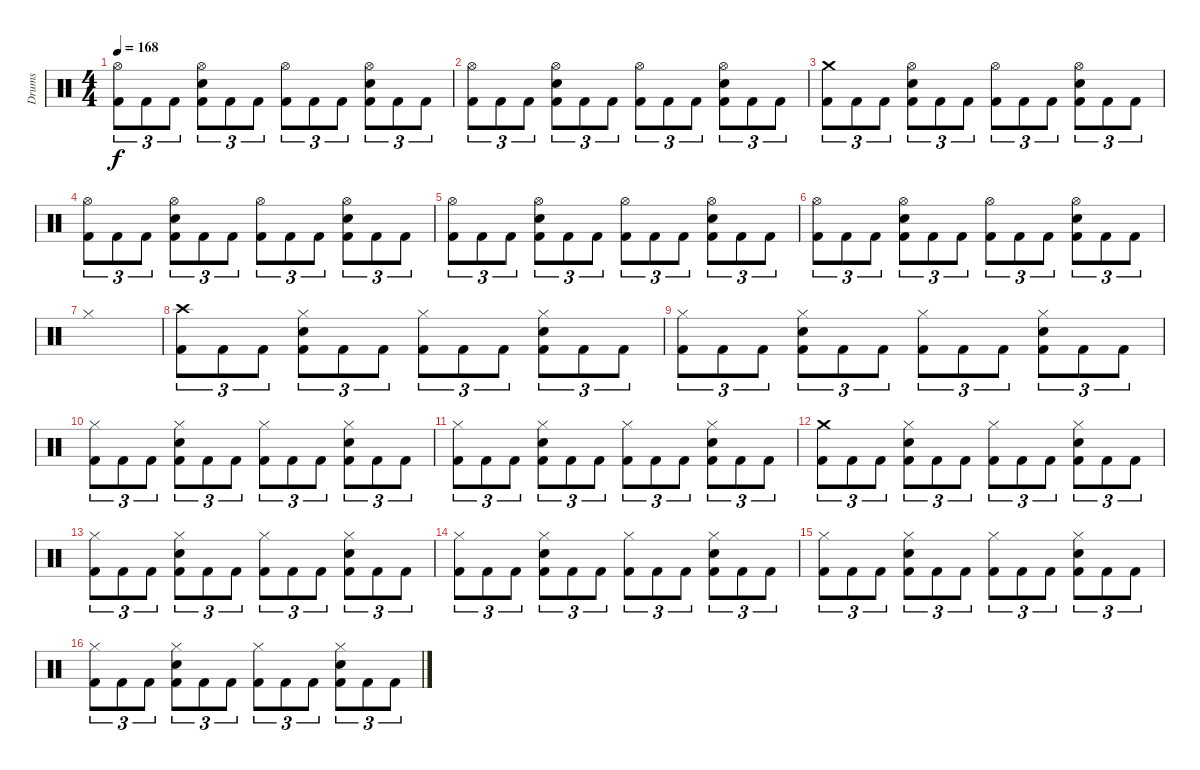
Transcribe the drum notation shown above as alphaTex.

\track ("Drums" "Drums") {instrument percussion}
\staff {score}
\articulation defaults
\ts (4 4)
\tempo 168
\clef neutral
\ks c
("Hi-Hat (open)" "Kick (hit) 2").8{tu (3 2) dy f} "Kick (hit) 2".8{tu (3 2)} "Kick (hit) 2".8{tu (3 2)} ("Hi-Hat (open)" "Electric Snare (hit)" "Kick (hit) 2").8{tu (3 2)} "Kick (hit) 2".8{tu (3 2)} "Kick (hit) 2".8{tu (3 2)} ("Hi-Hat (open)" "Kick (hit) 2").8{tu (3 2)} "Kick (hit) 2".8{tu (3 2)} "Kick (hit) 2".8{tu (3 2)} ("Hi-Hat (open)" "Electric Snare (hit)" "Kick (hit) 2").8{tu (3 2)} "Kick (hit) 2".8{tu (3 2)} "Kick (hit) 2".8{tu (3 2)} |
("Hi-Hat (open)" "Kick (hit) 2").8{tu (3 2)} "Kick (hit) 2".8{tu (3 2)} "Kick (hit) 2".8{tu (3 2)} ("Hi-Hat (open)" "Electric Snare (hit)" "Kick (hit) 2").8{tu (3 2)} "Kick (hit) 2".8{tu (3 2)} "Kick (hit) 2".8{tu (3 2)} ("Hi-Hat (open)" "Kick (hit) 2").8{tu (3 2)} "Kick (hit) 2".8{tu (3 2)} "Kick (hit) 2".8{tu (3 2)} ("Hi-Hat (open)" "Electric Snare (hit)" "Kick (hit) 2").8{tu (3 2)} "Kick (hit) 2".8{tu (3 2)} "Kick (hit) 2".8{tu (3 2)} |
("Crash medium (hit)" "Kick (hit) 2").8{tu (3 2)} "Kick (hit) 2".8{tu (3 2)} "Kick (hit) 2".8{tu (3 2)} ("Hi-Hat (open)" "Electric Snare (hit)" "Kick (hit) 2").8{tu (3 2)} "Kick (hit) 2".8{tu (3 2)} "Kick (hit) 2".8{tu (3 2)} ("Hi-Hat (open)" "Kick (hit) 2").8{tu (3 2)} "Kick (hit) 2".8{tu (3 2)} "Kick (hit) 2".8{tu (3 2)} ("Hi-Hat (open)" "Electric Snare (hit)" "Kick (hit) 2").8{tu (3 2)} "Kick (hit) 2".8{tu (3 2)} "Kick (hit) 2".8{tu (3 2)} |
("Hi-Hat (open)" "Kick (hit) 2").8{tu (3 2)} "Kick (hit) 2".8{tu (3 2)} "Kick (hit) 2".8{tu (3 2)} ("Hi-Hat (open)" "Electric Snare (hit)" "Kick (hit) 2").8{tu (3 2)} "Kick (hit) 2".8{tu (3 2)} "Kick (hit) 2".8{tu (3 2)} ("Hi-Hat (open)" "Kick (hit) 2").8{tu (3 2)} "Kick (hit) 2".8{tu (3 2)} "Kick (hit) 2".8{tu (3 2)} ("Hi-Hat (open)" "Electric Snare (hit)" "Kick (hit) 2").8{tu (3 2)} "Kick (hit) 2".8{tu (3 2)} "Kick (hit) 2".8{tu (3 2)} |
("Hi-Hat (open)" "Kick (hit) 2").8{tu (3 2)} "Kick (hit) 2".8{tu (3 2)} "Kick (hit) 2".8{tu (3 2)} ("Hi-Hat (open)" "Electric Snare (hit)" "Kick (hit) 2").8{tu (3 2)} "Kick (hit) 2".8{tu (3 2)} "Kick (hit) 2".8{tu (3 2)} ("Hi-Hat (open)" "Kick (hit) 2").8{tu (3 2)} "Kick (hit) 2".8{tu (3 2)} "Kick (hit) 2".8{tu (3 2)} ("Hi-Hat (open)" "Electric Snare (hit)" "Kick (hit) 2").8{tu (3 2)} "Kick (hit) 2".8{tu (3 2)} "Kick (hit) 2".8{tu (3 2)} |
("Hi-Hat (open)" "Kick (hit) 2").8{tu (3 2)} "Kick (hit) 2".8{tu (3 2)} "Kick (hit) 2".8{tu (3 2)} ("Hi-Hat (open)" "Electric Snare (hit)" "Kick (hit) 2").8{tu (3 2)} "Kick (hit) 2".8{tu (3 2)} "Kick (hit) 2".8{tu (3 2)} ("Hi-Hat (open)" "Kick (hit) 2").8{tu (3 2)} "Kick (hit) 2".8{tu (3 2)} "Kick (hit) 2".8{tu (3 2)} ("Hi-Hat (open)" "Electric Snare (hit)" "Kick (hit) 2").8{tu (3 2)} "Kick (hit) 2".8{tu (3 2)} "Kick (hit) 2".8{tu (3 2)} |
"Hi-Hat (closed)".1 |
("Crash high (hit)" "Kick (hit) 2").8{tu (3 2)} "Kick (hit) 2".8{tu (3 2)} "Kick (hit) 2".8{tu (3 2)} ("Hi-Hat (closed)" "Electric Snare (hit)" "Kick (hit) 2").8{tu (3 2)} "Kick (hit) 2".8{tu (3 2)} "Kick (hit) 2".8{tu (3 2)} ("Hi-Hat (closed)" "Kick (hit) 2").8{tu (3 2)} "Kick (hit) 2".8{tu (3 2)} "Kick (hit) 2".8{tu (3 2)} ("Hi-Hat (closed)" "Electric Snare (hit)" "Kick (hit) 2").8{tu (3 2)} "Kick (hit) 2".8{tu (3 2)} "Kick (hit) 2".8{tu (3 2)} |
("Hi-Hat (closed)" "Kick (hit) 2").8{tu (3 2)} "Kick (hit) 2".8{tu (3 2)} "Kick (hit) 2".8{tu (3 2)} ("Hi-Hat (closed)" "Electric Snare (hit)" "Kick (hit) 2").8{tu (3 2)} "Kick (hit) 2".8{tu (3 2)} "Kick (hit) 2".8{tu (3 2)} ("Hi-Hat (closed)" "Kick (hit) 2").8{tu (3 2)} "Kick (hit) 2".8{tu (3 2)} "Kick (hit) 2".8{tu (3 2)} ("Hi-Hat (closed)" "Electric Snare (hit)" "Kick (hit) 2").8{tu (3 2)} "Kick (hit) 2".8{tu (3 2)} "Kick (hit) 2".8{tu (3 2)} |
("Hi-Hat (closed)" "Kick (hit) 2").8{tu (3 2)} "Kick (hit) 2".8{tu (3 2)} "Kick (hit) 2".8{tu (3 2)} ("Hi-Hat (closed)" "Electric Snare (hit)" "Kick (hit) 2").8{tu (3 2)} "Kick (hit) 2".8{tu (3 2)} "Kick (hit) 2".8{tu (3 2)} ("Hi-Hat (closed)" "Kick (hit) 2").8{tu (3 2)} "Kick (hit) 2".8{tu (3 2)} "Kick (hit) 2".8{tu (3 2)} ("Hi-Hat (closed)" "Electric Snare (hit)" "Kick (hit) 2").8{tu (3 2)} "Kick (hit) 2".8{tu (3 2)} "Kick (hit) 2".8{tu (3 2)} |
("Hi-Hat (closed)" "Kick (hit) 2").8{tu (3 2)} "Kick (hit) 2".8{tu (3 2)} "Kick (hit) 2".8{tu (3 2)} ("Hi-Hat (closed)" "Electric Snare (hit)" "Kick (hit) 2").8{tu (3 2)} "Kick (hit) 2".8{tu (3 2)} "Kick (hit) 2".8{tu (3 2)} ("Hi-Hat (closed)" "Kick (hit) 2").8{tu (3 2)} "Kick (hit) 2".8{tu (3 2)} "Kick (hit) 2".8{tu (3 2)} ("Hi-Hat (closed)" "Electric Snare (hit)" "Kick (hit) 2").8{tu (3 2)} "Kick (hit) 2".8{tu (3 2)} "Kick (hit) 2".8{tu (3 2)} |
("Crash medium (hit)" "Kick (hit) 2").8{tu (3 2)} "Kick (hit) 2".8{tu (3 2)} "Kick (hit) 2".8{tu (3 2)} ("Hi-Hat (closed)" "Electric Snare (hit)" "Kick (hit) 2").8{tu (3 2)} "Kick (hit) 2".8{tu (3 2)} "Kick (hit) 2".8{tu (3 2)} ("Hi-Hat (closed)" "Kick (hit) 2").8{tu (3 2)} "Kick (hit) 2".8{tu (3 2)} "Kick (hit) 2".8{tu (3 2)} ("Hi-Hat (closed)" "Electric Snare (hit)" "Kick (hit) 2").8{tu (3 2)} "Kick (hit) 2".8{tu (3 2)} "Kick (hit) 2".8{tu (3 2)} |
("Hi-Hat (closed)" "Kick (hit) 2").8{tu (3 2)} "Kick (hit) 2".8{tu (3 2)} "Kick (hit) 2".8{tu (3 2)} ("Hi-Hat (closed)" "Electric Snare (hit)" "Kick (hit) 2").8{tu (3 2)} "Kick (hit) 2".8{tu (3 2)} "Kick (hit) 2".8{tu (3 2)} ("Hi-Hat (closed)" "Kick (hit) 2").8{tu (3 2)} "Kick (hit) 2".8{tu (3 2)} "Kick (hit) 2".8{tu (3 2)} ("Hi-Hat (closed)" "Electric Snare (hit)" "Kick (hit) 2").8{tu (3 2)} "Kick (hit) 2".8{tu (3 2)} "Kick (hit) 2".8{tu (3 2)} |
("Hi-Hat (closed)" "Kick (hit) 2").8{tu (3 2)} "Kick (hit) 2".8{tu (3 2)} "Kick (hit) 2".8{tu (3 2)} ("Hi-Hat (closed)" "Electric Snare (hit)" "Kick (hit) 2").8{tu (3 2)} "Kick (hit) 2".8{tu (3 2)} "Kick (hit) 2".8{tu (3 2)} ("Hi-Hat (closed)" "Kick (hit) 2").8{tu (3 2)} "Kick (hit) 2".8{tu (3 2)} "Kick (hit) 2".8{tu (3 2)} ("Hi-Hat (closed)" "Electric Snare (hit)" "Kick (hit) 2").8{tu (3 2)} "Kick (hit) 2".8{tu (3 2)} "Kick (hit) 2".8{tu (3 2)} |
("Hi-Hat (closed)" "Kick (hit) 2").8{tu (3 2)} "Kick (hit) 2".8{tu (3 2)} "Kick (hit) 2".8{tu (3 2)} ("Hi-Hat (closed)" "Electric Snare (hit)" "Kick (hit) 2").8{tu (3 2)} "Kick (hit) 2".8{tu (3 2)} "Kick (hit) 2".8{tu (3 2)} ("Hi-Hat (closed)" "Kick (hit) 2").8{tu (3 2)} "Kick (hit) 2".8{tu (3 2)} "Kick (hit) 2".8{tu (3 2)} ("Hi-Hat (closed)" "Electric Snare (hit)" "Kick (hit) 2").8{tu (3 2)} "Kick (hit) 2".8{tu (3 2)} "Kick (hit) 2".8{tu (3 2)} |
("Hi-Hat (closed)" "Kick (hit) 2").8{tu (3 2)} "Kick (hit) 2".8{tu (3 2)} "Kick (hit) 2".8{tu (3 2)} ("Hi-Hat (closed)" "Electric Snare (hit)" "Kick (hit) 2").8{tu (3 2)} "Kick (hit) 2".8{tu (3 2)} "Kick (hit) 2".8{tu (3 2)} ("Hi-Hat (closed)" "Kick (hit) 2").8{tu (3 2)} "Kick (hit) 2".8{tu (3 2)} "Kick (hit) 2".8{tu (3 2)} ("Hi-Hat (closed)" "Electric Snare (hit)" "Kick (hit) 2").8{tu (3 2)} "Kick (hit) 2".8{tu (3 2)} "Kick (hit) 2".8{tu (3 2)}
